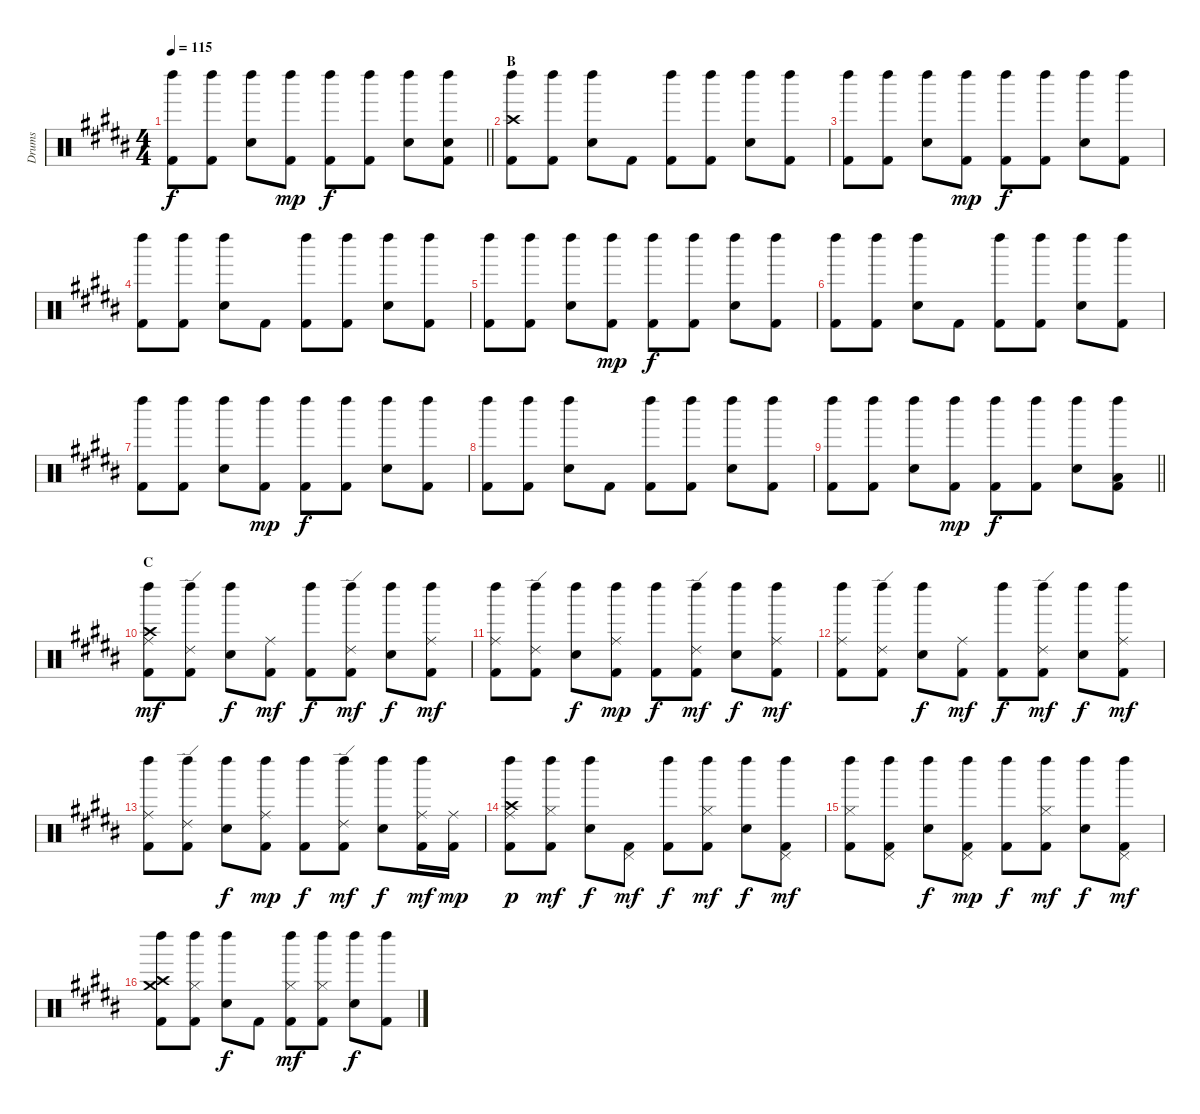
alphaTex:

\track ("Drums" "Drums") {instrument percussion}
\staff {score}
\articulation defaults
\ts (4 4)
\tempo 115
\clef neutral
\barLineRight lightlight
\ks b
("Kick (hit) 2" "Left Maraca (hit)").8{dy f} ("Kick (hit) 2" "Left Maraca (hit)").8 ("Electric Snare (hit)" "Left Maraca (hit)").8 ("Kick (hit) 2" "Left Maraca (hit)").8{dy mp} ("Kick (hit) 2" "Left Maraca (hit)").8{dy f} ("Kick (hit) 2" "Left Maraca (hit)").8 ("Electric Snare (hit)" "Left Maraca (hit)").8 ("Electric Snare (hit)" "Kick (hit) 2" "Left Maraca (hit)").8 |
\section ("" "B")
("Crash high (hit)" "Kick (hit) 2" "Left Maraca (hit)").8 ("Kick (hit) 2" "Left Maraca (hit)").8 ("Electric Snare (hit)" "Left Maraca (hit)").8 "Kick (hit) 2".8 ("Kick (hit) 2" "Left Maraca (hit)").8 ("Kick (hit) 2" "Left Maraca (hit)").8 ("Electric Snare (hit)" "Left Maraca (hit)").8 ("Kick (hit) 2" "Left Maraca (hit)").8 |
("Kick (hit) 2" "Left Maraca (hit)").8 ("Kick (hit) 2" "Left Maraca (hit)").8 ("Electric Snare (hit)" "Left Maraca (hit)").8 ("Kick (hit) 2" "Left Maraca (hit)").8{dy mp} ("Kick (hit) 2" "Left Maraca (hit)").8{dy f} ("Kick (hit) 2" "Left Maraca (hit)").8 ("Electric Snare (hit)" "Left Maraca (hit)").8 ("Kick (hit) 2" "Left Maraca (hit)").8 |
("Kick (hit) 2" "Left Maraca (hit)").8 ("Kick (hit) 2" "Left Maraca (hit)").8 ("Electric Snare (hit)" "Left Maraca (hit)").8 "Kick (hit) 2".8 ("Kick (hit) 2" "Left Maraca (hit)").8 ("Kick (hit) 2" "Left Maraca (hit)").8 ("Electric Snare (hit)" "Left Maraca (hit)").8 ("Kick (hit) 2" "Left Maraca (hit)").8 |
("Kick (hit) 2" "Left Maraca (hit)").8 ("Kick (hit) 2" "Left Maraca (hit)").8 ("Electric Snare (hit)" "Left Maraca (hit)").8 ("Kick (hit) 2" "Left Maraca (hit)").8{dy mp} ("Kick (hit) 2" "Left Maraca (hit)").8{dy f} ("Kick (hit) 2" "Left Maraca (hit)").8 ("Electric Snare (hit)" "Left Maraca (hit)").8 ("Kick (hit) 2" "Left Maraca (hit)").8 |
("Kick (hit) 2" "Left Maraca (hit)").8 ("Kick (hit) 2" "Left Maraca (hit)").8 ("Electric Snare (hit)" "Left Maraca (hit)").8 "Kick (hit) 2".8 ("Kick (hit) 2" "Left Maraca (hit)").8 ("Kick (hit) 2" "Left Maraca (hit)").8 ("Electric Snare (hit)" "Left Maraca (hit)").8 ("Kick (hit) 2" "Left Maraca (hit)").8 |
("Kick (hit) 2" "Left Maraca (hit)").8 ("Kick (hit) 2" "Left Maraca (hit)").8 ("Electric Snare (hit)" "Left Maraca (hit)").8 ("Kick (hit) 2" "Left Maraca (hit)").8{dy mp} ("Kick (hit) 2" "Left Maraca (hit)").8{dy f} ("Kick (hit) 2" "Left Maraca (hit)").8 ("Electric Snare (hit)" "Left Maraca (hit)").8 ("Kick (hit) 2" "Left Maraca (hit)").8 |
("Kick (hit) 2" "Left Maraca (hit)").8 ("Kick (hit) 2" "Left Maraca (hit)").8 ("Electric Snare (hit)" "Left Maraca (hit)").8 "Kick (hit) 2".8 ("Kick (hit) 2" "Left Maraca (hit)").8 ("Kick (hit) 2" "Left Maraca (hit)").8 ("Electric Snare (hit)" "Left Maraca (hit)").8 ("Kick (hit) 2" "Left Maraca (hit)").8 |
\barLineRight lightlight
("Kick (hit) 2" "Left Maraca (hit)").8 ("Kick (hit) 2" "Left Maraca (hit)").8 ("Electric Snare (hit)" "Left Maraca (hit)").8 ("Kick (hit) 2" "Left Maraca (hit)").8{dy mp} ("Kick (hit) 2" "Left Maraca (hit)").8{dy f} ("Kick (hit) 2" "Left Maraca (hit)").8 ("Electric Snare (hit)" "Left Maraca (hit)").8 ("Low Tom (hit)" "Kick (hit) 2" "Left Maraca (hit)").8 |
\section ("" "C")
("Ride (middle)" "Crash high (hit)" "Kick (hit) 2" "Left Maraca (hit)").8{dy mf} ("Ride (edge) 2" "Kick (hit) 2" "Left Maraca (hit)").8 ("Electric Snare (hit)" "Left Maraca (hit)").8{dy f} ("Ride (middle)" "Kick (hit) 2").8{dy mf} ("Kick (hit) 2" "Left Maraca (hit)").8{dy f} ("Ride (edge) 2" "Kick (hit) 2" "Left Maraca (hit)").8{dy mf} ("Electric Snare (hit)" "Left Maraca (hit)").8{dy f} ("Ride (middle)" "Kick (hit) 2" "Left Maraca (hit)").8{dy mf} |
("Ride (middle)" "Kick (hit) 2" "Left Maraca (hit)").8 ("Ride (edge) 2" "Kick (hit) 2" "Left Maraca (hit)").8 ("Electric Snare (hit)" "Left Maraca (hit)").8{dy f} ("Ride (middle)" "Kick (hit) 2" "Left Maraca (hit)").8{dy mp} ("Kick (hit) 2" "Left Maraca (hit)").8{dy f} ("Ride (edge) 2" "Kick (hit) 2" "Left Maraca (hit)").8{dy mf} ("Electric Snare (hit)" "Left Maraca (hit)").8{dy f} ("Ride (middle)" "Kick (hit) 2" "Left Maraca (hit)").8{dy mf} |
("Ride (middle)" "Kick (hit) 2" "Left Maraca (hit)").8 ("Ride (edge) 2" "Kick (hit) 2" "Left Maraca (hit)").8 ("Electric Snare (hit)" "Left Maraca (hit)").8{dy f} ("Ride (middle)" "Kick (hit) 2").8{dy mf} ("Kick (hit) 2" "Left Maraca (hit)").8{dy f} ("Ride (edge) 2" "Kick (hit) 2" "Left Maraca (hit)").8{dy mf} ("Electric Snare (hit)" "Left Maraca (hit)").8{dy f} ("Ride (middle)" "Kick (hit) 2" "Left Maraca (hit)").8{dy mf} |
("Ride (middle)" "Kick (hit) 2" "Left Maraca (hit)").8 ("Ride (edge) 2" "Kick (hit) 2" "Left Maraca (hit)").8 ("Electric Snare (hit)" "Left Maraca (hit)").8{dy f} ("Ride (middle)" "Kick (hit) 2" "Left Maraca (hit)").8{dy mp} ("Kick (hit) 2" "Left Maraca (hit)").8{dy f} ("Ride (edge) 2" "Kick (hit) 2" "Left Maraca (hit)").8{dy mf} ("Electric Snare (hit)" "Left Maraca (hit)").8{dy f} ("Ride (middle)" "Kick (hit) 2" "Left Maraca (hit)").16{dy mf} ("Ride (middle)" "Kick (hit) 2").16{dy mp} |
("Ride (middle)" "Crash high (hit)" "Kick (hit) 2" "Left Maraca (hit)").8{dy p} ("Hi-Hat (closed)" "Kick (hit) 2" "Left Maraca (hit)").8{dy mf} ("Electric Snare (hit)" "Left Maraca (hit)").8{dy f} ("Pedal Hi-Hat (hit)" "Kick (hit) 2").8{dy mf} ("Kick (hit) 2" "Left Maraca (hit)").8{dy f} ("Hi-Hat (closed)" "Kick (hit) 2" "Left Maraca (hit)").8{dy mf} ("Electric Snare (hit)" "Left Maraca (hit)").8{dy f} ("Pedal Hi-Hat (hit)" "Kick (hit) 2" "Left Maraca (hit)").8{dy mf} |
("Hi-Hat (closed)" "Kick (hit) 2" "Left Maraca (hit)").8 ("Pedal Hi-Hat (hit)" "Kick (hit) 2" "Left Maraca (hit)").8 ("Electric Snare (hit)" "Left Maraca (hit)").8{dy f} ("Pedal Hi-Hat (hit)" "Kick (hit) 2" "Left Maraca (hit)").8{dy mp} ("Kick (hit) 2" "Left Maraca (hit)").8{dy f} ("Hi-Hat (closed)" "Kick (hit) 2" "Left Maraca (hit)").8{dy mf} ("Electric Snare (hit)" "Left Maraca (hit)").8{dy f} ("Pedal Hi-Hat (hit)" "Kick (hit) 2" "Left Maraca (hit)").8{dy mf} |
("Crash medium (hit)" "Crash high (hit)" "Kick (hit) 2" "Left Maraca (hit)").8 ("Hi-Hat (closed)" "Kick (hit) 2" "Left Maraca (hit)").8 ("Electric Snare (hit)" "Left Maraca (hit)").8{dy f} "Kick (hit) 2".8 ("Hi-Hat (closed)" "Kick (hit) 2" "Left Maraca (hit)").8{dy mf} ("Hi-Hat (closed)" "Kick (hit) 2" "Left Maraca (hit)").8 ("Electric Snare (hit)" "Left Maraca (hit)").8{dy f} ("Kick (hit) 2" "Left Maraca (hit)").8
